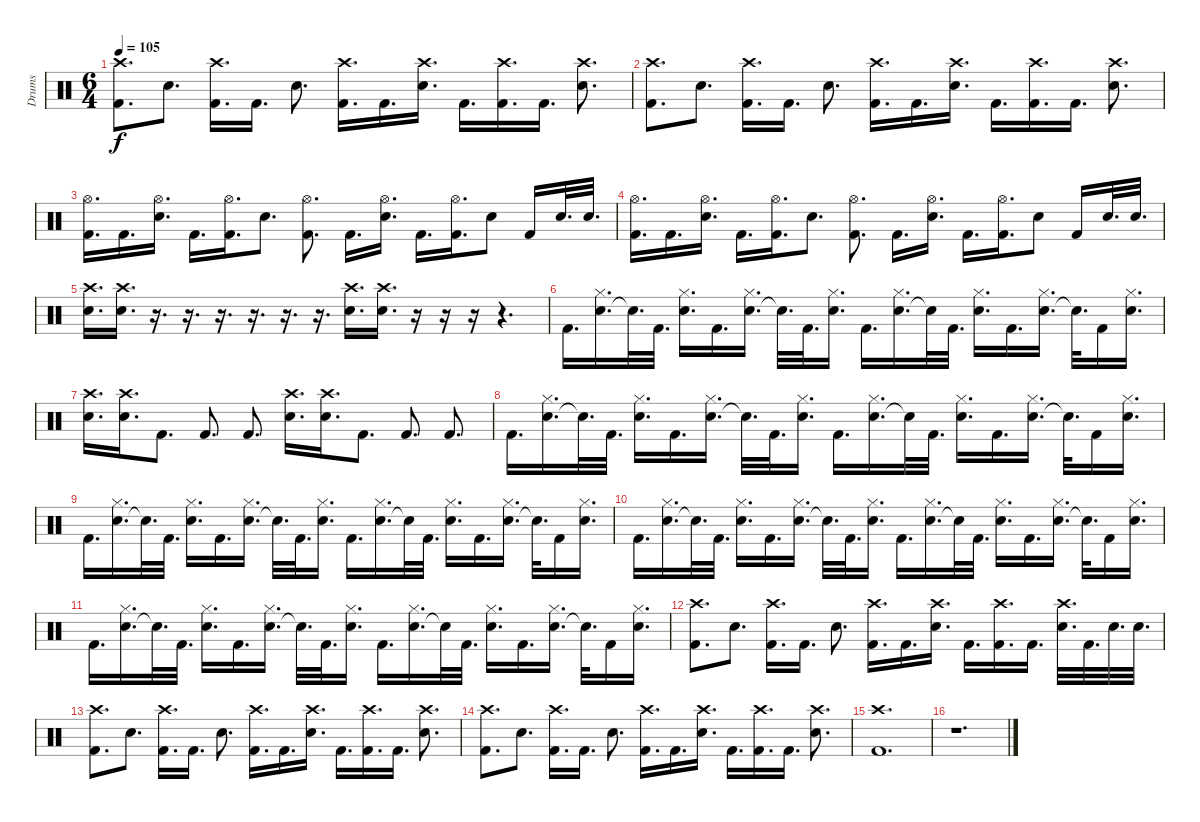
\track ("Drums" "Drums") {instrument percussion}
\staff {score}
\articulation defaults
\ts (6 4)
\tempo 105
\clef neutral
\ks c
("Kick (hit) 2" "Crash high (hit)").8{d dy f} "Snare (hit) 2".8{d} ("Kick (hit) 2" "Crash high (hit)").16{d} "Kick (hit) 2".16{d} "Snare (hit) 2".8{d} ("Kick (hit) 2" "Crash high (hit)").16{d} "Kick (hit) 2".16{d} ("Snare (hit) 2" "Crash high (hit)").16{d} "Kick (hit) 2".16{d} ("Kick (hit) 2" "Crash high (hit)").16{d} "Kick (hit) 2".16{d} ("Snare (hit) 2" "Crash high (hit)").8{d} |
("Kick (hit) 2" "Crash high (hit)").8{d} "Snare (hit) 2".8{d} ("Kick (hit) 2" "Crash high (hit)").16{d} "Kick (hit) 2".16{d} "Snare (hit) 2".8{d} ("Kick (hit) 2" "Crash high (hit)").16{d} "Kick (hit) 2".16{d} ("Snare (hit) 2" "Crash high (hit)").16{d} "Kick (hit) 2".16{d} ("Kick (hit) 2" "Crash high (hit)").16{d} "Kick (hit) 2".16{d} ("Snare (hit) 2" "Crash high (hit)").8{d} |
("Kick (hit) 2" "Hi-Hat (open)").16{d} "Kick (hit) 2".16{d} ("Snare (hit) 2" "Hi-Hat (open)").16{d} "Kick (hit) 2".16{d} ("Kick (hit) 2" "Hi-Hat (open)").16{d} "Snare (hit) 2".8{d} ("Kick (hit) 2" "Hi-Hat (open)").8{d} "Kick (hit) 2".16{d} ("Snare (hit) 2" "Hi-Hat (open)").16{d} "Kick (hit) 2".16{d} ("Kick (hit) 2" "Hi-Hat (open)").16{d} "Snare (hit) 2".8 "Kick (hit) 2".16 "Snare (hit) 2".32{d} "Snare (hit) 2".32{d} |
("Kick (hit) 2" "Hi-Hat (open)").16{d} "Kick (hit) 2".16{d} ("Snare (hit) 2" "Hi-Hat (open)").16{d} "Kick (hit) 2".16{d} ("Kick (hit) 2" "Hi-Hat (open)").16{d} "Snare (hit) 2".8{d} ("Kick (hit) 2" "Hi-Hat (open)").8{d} "Kick (hit) 2".16{d} ("Snare (hit) 2" "Hi-Hat (open)").16{d} "Kick (hit) 2".16{d} ("Kick (hit) 2" "Hi-Hat (open)").16{d} "Snare (hit) 2".8 "Kick (hit) 2".16 "Snare (hit) 2".32{d} "Snare (hit) 2".32{d} |
("Crash high (hit)" "Snare (hit) 2").16{d} ("Crash high (hit)" "Snare (hit) 2").16{d} r.16{d} r.16{d} r.16{d} r.16{d} r.16{d} r.16{d} ("Crash high (hit)" "Snare (hit) 2").16{d} ("Crash high (hit)" "Snare (hit) 2").16{d} r.16 r.16 r.16 r.4{d} |
"Kick (hit) 2".16{d} ("Snare (hit) 2" "Hi-Hat (closed)").16{d} "Snare (hit) 2"{t}.32{d} "Kick (hit) 2".32{d} ("Snare (hit) 2" "Hi-Hat (closed)").16{d} "Kick (hit) 2".16{d} ("Snare (hit) 2" "Hi-Hat (closed)").16{d} "Snare (hit) 2"{t}.32{d} "Kick (hit) 2".32{d} ("Snare (hit) 2" "Hi-Hat (closed)").16{d} "Kick (hit) 2".16{d} ("Snare (hit) 2" "Hi-Hat (closed)").16{d} "Snare (hit) 2"{t}.32 "Kick (hit) 2".32{d} ("Snare (hit) 2" "Hi-Hat (closed)").16{d} "Kick (hit) 2".16{d} ("Snare (hit) 2" "Hi-Hat (closed)").16{d} "Snare (hit) 2"{t}.32{d} "Kick (hit) 2".16 ("Snare (hit) 2" "Hi-Hat (closed)").16{d} |
("Crash high (hit)" "Snare (hit) 2").16{d} ("Crash high (hit)" "Snare (hit) 2").16{d} "Kick (hit) 2".8{d} "Kick (hit) 2".8{d} "Kick (hit) 2".8{d} ("Crash high (hit)" "Snare (hit) 2").16{d} ("Crash high (hit)" "Snare (hit) 2").16{d} "Kick (hit) 2".8{d} "Kick (hit) 2".8{d} "Kick (hit) 2".8{d} |
"Kick (hit) 2".16{d} ("Snare (hit) 2" "Hi-Hat (closed)").16{d} "Snare (hit) 2"{t}.32{d} "Kick (hit) 2".32{d} ("Snare (hit) 2" "Hi-Hat (closed)").16{d} "Kick (hit) 2".16{d} ("Snare (hit) 2" "Hi-Hat (closed)").16{d} "Snare (hit) 2"{t}.32{d} "Kick (hit) 2".32{d} ("Snare (hit) 2" "Hi-Hat (closed)").16{d} "Kick (hit) 2".16{d} ("Snare (hit) 2" "Hi-Hat (closed)").16{d} "Snare (hit) 2"{t}.32 "Kick (hit) 2".32{d} ("Snare (hit) 2" "Hi-Hat (closed)").16{d} "Kick (hit) 2".16{d} ("Snare (hit) 2" "Hi-Hat (closed)").16{d} "Snare (hit) 2"{t}.32{d} "Kick (hit) 2".16 ("Snare (hit) 2" "Hi-Hat (closed)").16{d} |
"Kick (hit) 2".16{d} ("Snare (hit) 2" "Hi-Hat (closed)").16{d} "Snare (hit) 2"{t}.32{d} "Kick (hit) 2".32{d} ("Snare (hit) 2" "Hi-Hat (closed)").16{d} "Kick (hit) 2".16{d} ("Snare (hit) 2" "Hi-Hat (closed)").16{d} "Snare (hit) 2"{t}.32{d} "Kick (hit) 2".32{d} ("Snare (hit) 2" "Hi-Hat (closed)").16{d} "Kick (hit) 2".16{d} ("Snare (hit) 2" "Hi-Hat (closed)").16{d} "Snare (hit) 2"{t}.32 "Kick (hit) 2".32{d} ("Snare (hit) 2" "Hi-Hat (closed)").16{d} "Kick (hit) 2".16{d} ("Snare (hit) 2" "Hi-Hat (closed)").16{d} "Snare (hit) 2"{t}.32{d} "Kick (hit) 2".16 ("Snare (hit) 2" "Hi-Hat (closed)").16{d} |
"Kick (hit) 2".16{d} ("Snare (hit) 2" "Hi-Hat (closed)").16{d} "Snare (hit) 2"{t}.32{d} "Kick (hit) 2".32{d} ("Snare (hit) 2" "Hi-Hat (closed)").16{d} "Kick (hit) 2".16{d} ("Snare (hit) 2" "Hi-Hat (closed)").16{d} "Snare (hit) 2"{t}.32{d} "Kick (hit) 2".32{d} ("Snare (hit) 2" "Hi-Hat (closed)").16{d} "Kick (hit) 2".16{d} ("Snare (hit) 2" "Hi-Hat (closed)").16{d} "Snare (hit) 2"{t}.32 "Kick (hit) 2".32{d} ("Snare (hit) 2" "Hi-Hat (closed)").16{d} "Kick (hit) 2".16{d} ("Snare (hit) 2" "Hi-Hat (closed)").16{d} "Snare (hit) 2"{t}.32{d} "Kick (hit) 2".16 ("Snare (hit) 2" "Hi-Hat (closed)").16{d} |
"Kick (hit) 2".16{d} ("Snare (hit) 2" "Hi-Hat (closed)").16{d} "Snare (hit) 2"{t}.32{d} "Kick (hit) 2".32{d} ("Snare (hit) 2" "Hi-Hat (closed)").16{d} "Kick (hit) 2".16{d} ("Snare (hit) 2" "Hi-Hat (closed)").16{d} "Snare (hit) 2"{t}.32{d} "Kick (hit) 2".32{d} ("Snare (hit) 2" "Hi-Hat (closed)").16{d} "Kick (hit) 2".16{d} ("Snare (hit) 2" "Hi-Hat (closed)").16{d} "Snare (hit) 2"{t}.32 "Kick (hit) 2".32{d} ("Snare (hit) 2" "Hi-Hat (closed)").16{d} "Kick (hit) 2".16{d} ("Snare (hit) 2" "Hi-Hat (closed)").16{d} "Snare (hit) 2"{t}.32{d} "Kick (hit) 2".16 ("Snare (hit) 2" "Hi-Hat (closed)").16{d} |
("Kick (hit) 2" "Crash high (hit)").8{d} "Snare (hit) 2".8{d} ("Kick (hit) 2" "Crash high (hit)").16{d} "Kick (hit) 2".16{d} "Snare (hit) 2".8{d} ("Kick (hit) 2" "Crash high (hit)").16{d} "Kick (hit) 2".16{d} ("Snare (hit) 2" "Crash high (hit)").16{d} "Kick (hit) 2".16{d} ("Kick (hit) 2" "Crash high (hit)").16{d} "Kick (hit) 2".16{d} ("Snare (hit) 2" "Crash high (hit)").32{d} "Kick (hit) 2".32{d} "Snare (hit) 2".32{d} "Snare (hit) 2".32{d} |
("Kick (hit) 2" "Crash high (hit)").8{d} "Snare (hit) 2".8{d} ("Kick (hit) 2" "Crash high (hit)").16{d} "Kick (hit) 2".16{d} "Snare (hit) 2".8{d} ("Kick (hit) 2" "Crash high (hit)").16{d} "Kick (hit) 2".16{d} ("Snare (hit) 2" "Crash high (hit)").16{d} "Kick (hit) 2".16{d} ("Kick (hit) 2" "Crash high (hit)").16{d} "Kick (hit) 2".16{d} ("Snare (hit) 2" "Crash high (hit)").8{d} |
("Kick (hit) 2" "Crash high (hit)").8{d} "Snare (hit) 2".8{d} ("Kick (hit) 2" "Crash high (hit)").16{d} "Kick (hit) 2".16{d} "Snare (hit) 2".8{d} ("Kick (hit) 2" "Crash high (hit)").16{d} "Kick (hit) 2".16{d} ("Snare (hit) 2" "Crash high (hit)").16{d} "Kick (hit) 2".16{d} ("Kick (hit) 2" "Crash high (hit)").16{d} "Kick (hit) 2".16{d} ("Snare (hit) 2" "Crash high (hit)").8{d} |
("Kick (hit) 2" "Crash high (hit)").1{d} |
r.1{d}
